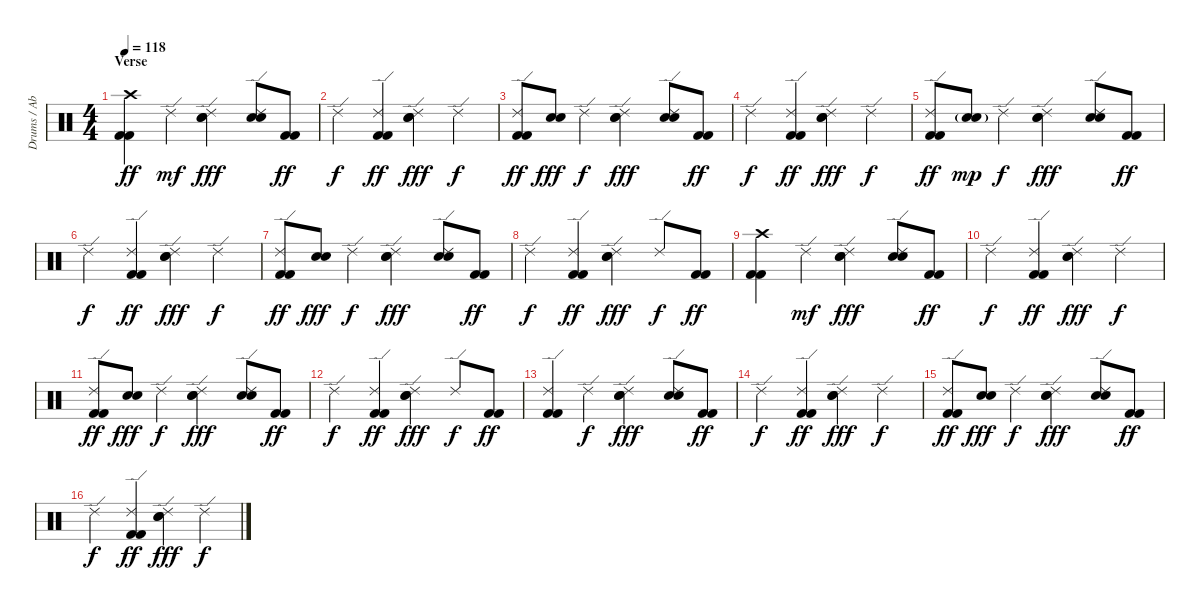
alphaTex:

\track ("Drums / Abe Cunningham" "Drums / Ab") {instrument percussion}
\staff {score}
\articulation defaults
\ts (4 4)
\section ("" "Verse")
\tempo 118
\clef neutral
\ks c
("Crash high (hit)" "Kick (hit) 2" "Kick (hit) 2").4{dy ff} "Ride (edge) 2".4{dy mf} ("Ride (edge) 2" "Electric Snare (hit)" "Electric Snare (hit)").4{dy fff} ("Ride (edge) 2" "Electric Snare (hit)" "Electric Snare (hit)").8 ("Kick (hit) 2" "Kick (hit) 2").8{dy ff} |
"Ride (edge) 2".4{dy f} ("Ride (edge) 2" "Kick (hit) 2" "Kick (hit) 2").4{dy ff} ("Ride (edge) 2" "Electric Snare (hit)" "Electric Snare (hit)").4{dy fff} "Ride (edge) 2".4{dy f} |
("Ride (edge) 2" "Kick (hit) 2" "Kick (hit) 2").8{dy ff} ("Electric Snare (hit)" "Electric Snare (hit)").8{dy fff} "Ride (edge) 2".4{dy f} ("Ride (edge) 2" "Electric Snare (hit)" "Electric Snare (hit)").4{dy fff} ("Ride (edge) 2" "Electric Snare (hit)" "Electric Snare (hit)").8 ("Kick (hit) 2" "Kick (hit) 2").8{dy ff} |
"Ride (edge) 2".4{dy f} ("Ride (edge) 2" "Kick (hit) 2" "Kick (hit) 2").4{dy ff} ("Ride (edge) 2" "Electric Snare (hit)" "Electric Snare (hit)").4{dy fff} "Ride (edge) 2".4{dy f} |
("Ride (edge) 2" "Kick (hit) 2" "Kick (hit) 2").8{dy ff} ("Electric Snare (hit)"{g} "Electric Snare (hit)"{g}).8{dy mp} "Ride (edge) 2".4{dy f} ("Ride (edge) 2" "Electric Snare (hit)" "Electric Snare (hit)").4{dy fff} ("Ride (edge) 2" "Electric Snare (hit)" "Electric Snare (hit)").8 ("Kick (hit) 2" "Kick (hit) 2").8{dy ff} |
"Ride (edge) 2".4{dy f} ("Ride (edge) 2" "Kick (hit) 2" "Kick (hit) 2").4{dy ff} ("Ride (edge) 2" "Electric Snare (hit)" "Electric Snare (hit)").4{dy fff} "Ride (edge) 2".4{dy f} |
("Ride (edge) 2" "Kick (hit) 2" "Kick (hit) 2").8{dy ff} ("Electric Snare (hit)" "Electric Snare (hit)").8{dy fff} "Ride (edge) 2".4{dy f} ("Ride (edge) 2" "Electric Snare (hit)" "Electric Snare (hit)").4{dy fff} ("Ride (edge) 2" "Electric Snare (hit)" "Electric Snare (hit)").8 ("Kick (hit) 2" "Kick (hit) 2").8{dy ff} |
"Ride (edge) 2".4{dy f} ("Ride (edge) 2" "Kick (hit) 2" "Kick (hit) 2").4{dy ff} ("Ride (edge) 2" "Electric Snare (hit)" "Electric Snare (hit)").4{dy fff} "Ride (edge) 2".8{dy f} ("Kick (hit) 2" "Kick (hit) 2").8{dy ff} |
("Crash high (hit)" "Kick (hit) 2" "Kick (hit) 2").4 "Ride (edge) 2".4{dy mf} ("Ride (edge) 2" "Electric Snare (hit)" "Electric Snare (hit)").4{dy fff} ("Ride (edge) 2" "Electric Snare (hit)" "Electric Snare (hit)").8 ("Kick (hit) 2" "Kick (hit) 2").8{dy ff} |
"Ride (edge) 2".4{dy f} ("Ride (edge) 2" "Kick (hit) 2" "Kick (hit) 2").4{dy ff} ("Ride (edge) 2" "Electric Snare (hit)" "Electric Snare (hit)").4{dy fff} "Ride (edge) 2".4{dy f} |
("Ride (edge) 2" "Kick (hit) 2" "Kick (hit) 2").8{dy ff} ("Electric Snare (hit)" "Electric Snare (hit)").8{dy fff} "Ride (edge) 2".4{dy f} ("Ride (edge) 2" "Electric Snare (hit)" "Electric Snare (hit)").4{dy fff} ("Ride (edge) 2" "Electric Snare (hit)" "Electric Snare (hit)").8 ("Kick (hit) 2" "Kick (hit) 2").8{dy ff} |
"Ride (edge) 2".4{dy f} ("Ride (edge) 2" "Kick (hit) 2" "Kick (hit) 2").4{dy ff} ("Ride (edge) 2" "Electric Snare (hit)" "Electric Snare (hit)").4{dy fff} "Ride (edge) 2".8{dy f} ("Kick (hit) 2" "Kick (hit) 2").8{dy ff} |
("Ride (edge) 2" "Kick (hit) 2" "Kick (hit) 2").4 "Ride (edge) 2".4{dy f} ("Ride (edge) 2" "Electric Snare (hit)" "Electric Snare (hit)").4{dy fff} ("Ride (edge) 2" "Electric Snare (hit)" "Electric Snare (hit)").8 ("Kick (hit) 2" "Kick (hit) 2").8{dy ff} |
"Ride (edge) 2".4{dy f} ("Ride (edge) 2" "Kick (hit) 2" "Kick (hit) 2").4{dy ff} ("Ride (edge) 2" "Electric Snare (hit)" "Electric Snare (hit)").4{dy fff} "Ride (edge) 2".4{dy f} |
("Ride (edge) 2" "Kick (hit) 2" "Kick (hit) 2").8{dy ff} ("Electric Snare (hit)" "Electric Snare (hit)").8{dy fff} "Ride (edge) 2".4{dy f} ("Ride (edge) 2" "Electric Snare (hit)" "Electric Snare (hit)").4{dy fff} ("Ride (edge) 2" "Electric Snare (hit)" "Electric Snare (hit)").8 ("Kick (hit) 2" "Kick (hit) 2").8{dy ff} |
"Ride (edge) 2".4{dy f} ("Ride (edge) 2" "Kick (hit) 2" "Kick (hit) 2").4{dy ff} ("Ride (edge) 2" "Electric Snare (hit)" "Electric Snare (hit)").4{dy fff} "Ride (edge) 2".4{dy f}
